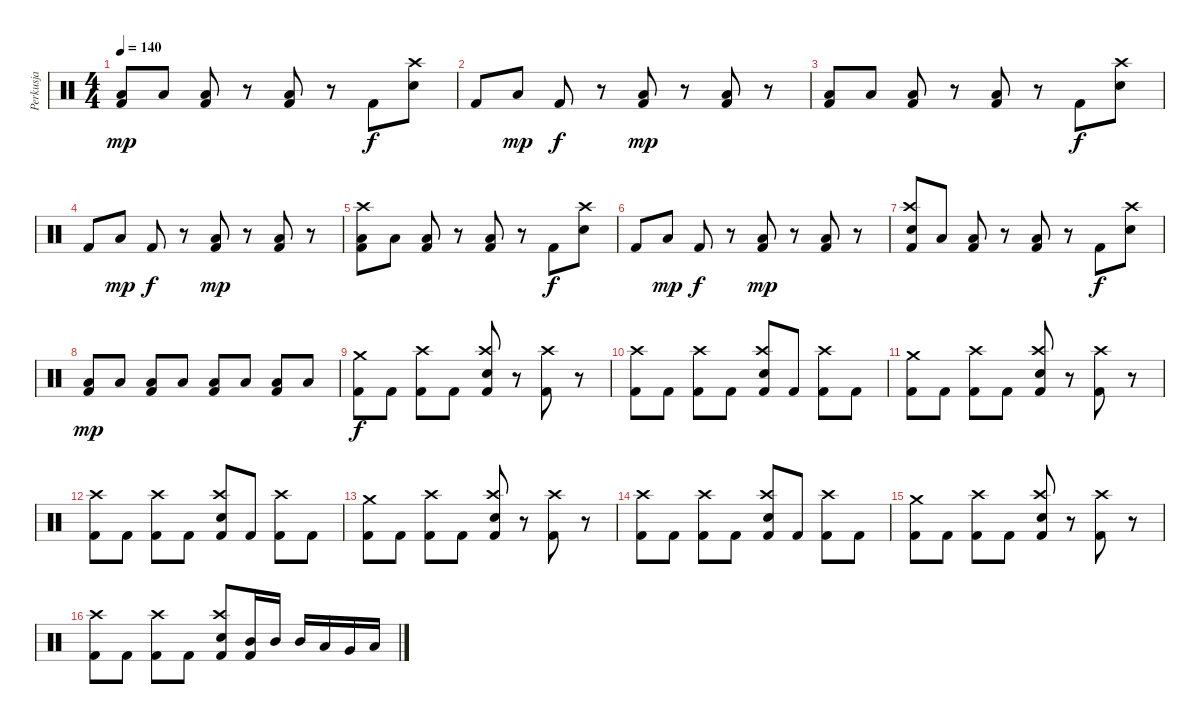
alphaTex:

\track ("Perkusja" "Perkusja") {instrument percussion}
\staff {score}
\articulation defaults
\ts (4 4)
\tempo 140
\clef neutral
\ks c
("Low Floor Tom (hit)" "Kick (hit) 2").8{dy mp} "Low Floor Tom (hit)".8 ("Low Floor Tom (hit)" "Kick (hit) 2").8 r.8 ("Low Floor Tom (hit)" "Kick (hit) 2").8 r.8 "Kick (hit) 2".8{dy f} ("Crash high (hit)" "Electric Snare (hit)").8 |
"Kick (hit) 2".8 "Low Floor Tom (hit)".8{dy mp} "Kick (hit) 2".8{dy f} r.8 ("Low Floor Tom (hit)" "Kick (hit) 2").8{dy mp} r.8 ("Low Floor Tom (hit)" "Kick (hit) 2").8 r.8 |
("Low Floor Tom (hit)" "Kick (hit) 2").8 "Low Floor Tom (hit)".8 ("Low Floor Tom (hit)" "Kick (hit) 2").8 r.8 ("Low Floor Tom (hit)" "Kick (hit) 2").8 r.8 "Kick (hit) 2".8{dy f} ("Crash high (hit)" "Electric Snare (hit)").8 |
"Kick (hit) 2".8 "Low Floor Tom (hit)".8{dy mp} "Kick (hit) 2".8{dy f} r.8 ("Low Floor Tom (hit)" "Kick (hit) 2").8{dy mp} r.8 ("Low Floor Tom (hit)" "Kick (hit) 2").8 r.8 |
("Crash high (hit)" "Low Floor Tom (hit)" "Kick (hit) 2").8 "Low Floor Tom (hit)".8 ("Low Floor Tom (hit)" "Kick (hit) 2").8 r.8 ("Low Floor Tom (hit)" "Kick (hit) 2").8 r.8 "Kick (hit) 2".8{dy f} ("Crash high (hit)" "Electric Snare (hit)").8 |
"Kick (hit) 2".8 "Low Floor Tom (hit)".8{dy mp} "Kick (hit) 2".8{dy f} r.8 ("Low Floor Tom (hit)" "Kick (hit) 2").8{dy mp} r.8 ("Low Floor Tom (hit)" "Kick (hit) 2").8 r.8 |
("Crash high (hit)" "Electric Snare (hit)" "Kick (hit) 2").8 "Low Floor Tom (hit)".8 ("Low Floor Tom (hit)" "Kick (hit) 2").8 r.8 ("Low Floor Tom (hit)" "Kick (hit) 2").8 r.8 "Kick (hit) 2".8{dy f} ("Crash high (hit)" "Electric Snare (hit)").8 |
("Low Floor Tom (hit)" "Kick (hit) 2").8{dy mp} "Low Floor Tom (hit)".8 ("Low Floor Tom (hit)" "Kick (hit) 2").8 "Low Floor Tom (hit)".8 ("Low Floor Tom (hit)" "Kick (hit) 2").8 "Low Floor Tom (hit)".8 ("Low Floor Tom (hit)" "Kick (hit) 2").8 "Low Floor Tom (hit)".8 |
("Crash medium (hit)" "Kick (hit) 2").8{dy f} "Kick (hit) 2".8 ("Crash high (hit)" "Kick (hit) 2").8 "Kick (hit) 2".8 ("Crash high (hit)" "Electric Snare (hit)" "Kick (hit) 2").8 r.8 ("Crash high (hit)" "Kick (hit) 2").8 r.8 |
("Crash high (hit)" "Kick (hit) 2").8 "Kick (hit) 2".8 ("Crash high (hit)" "Kick (hit) 2").8 "Kick (hit) 2".8 ("Crash high (hit)" "Electric Snare (hit)" "Kick (hit) 2").8 "Kick (hit) 2".8 ("Crash high (hit)" "Kick (hit) 2").8 "Kick (hit) 2".8 |
("Crash medium (hit)" "Kick (hit) 2").8 "Kick (hit) 2".8 ("Crash high (hit)" "Kick (hit) 2").8 "Kick (hit) 2".8 ("Crash high (hit)" "Electric Snare (hit)" "Kick (hit) 2").8 r.8 ("Crash high (hit)" "Kick (hit) 2").8 r.8 |
("Crash high (hit)" "Kick (hit) 2").8 "Kick (hit) 2".8 ("Crash high (hit)" "Kick (hit) 2").8 "Kick (hit) 2".8 ("Crash high (hit)" "Electric Snare (hit)" "Kick (hit) 2").8 "Kick (hit) 2".8 ("Crash high (hit)" "Kick (hit) 2").8 "Kick (hit) 2".8 |
("Crash medium (hit)" "Kick (hit) 2").8 "Kick (hit) 2".8 ("Crash high (hit)" "Kick (hit) 2").8 "Kick (hit) 2".8 ("Crash high (hit)" "Electric Snare (hit)" "Kick (hit) 2").8 r.8 ("Crash high (hit)" "Kick (hit) 2").8 r.8 |
("Crash high (hit)" "Kick (hit) 2").8 "Kick (hit) 2".8 ("Crash high (hit)" "Kick (hit) 2").8 "Kick (hit) 2".8 ("Crash high (hit)" "Electric Snare (hit)" "Kick (hit) 2").8 "Kick (hit) 2".8 ("Crash high (hit)" "Kick (hit) 2").8 "Kick (hit) 2".8 |
("Crash medium (hit)" "Kick (hit) 2").8 "Kick (hit) 2".8 ("Crash high (hit)" "Kick (hit) 2").8 "Kick (hit) 2".8 ("Crash high (hit)" "Electric Snare (hit)" "Kick (hit) 2").8 r.8 ("Crash high (hit)" "Kick (hit) 2").8 r.8 |
("Crash high (hit)" "Kick (hit) 2").8 "Kick (hit) 2".8 ("Crash high (hit)" "Kick (hit) 2").8 "Kick (hit) 2".8 ("Crash high (hit)" "Electric Snare (hit)" "Kick (hit) 2").8 ("Mid Tom (hit)" "Kick (hit) 2").16 "Mid Tom (hit)".16 "Mid Tom (hit)".16 "Low Tom (hit)".16 "Very Low Tom (hit)".16 "Low Floor Tom (hit)".16
